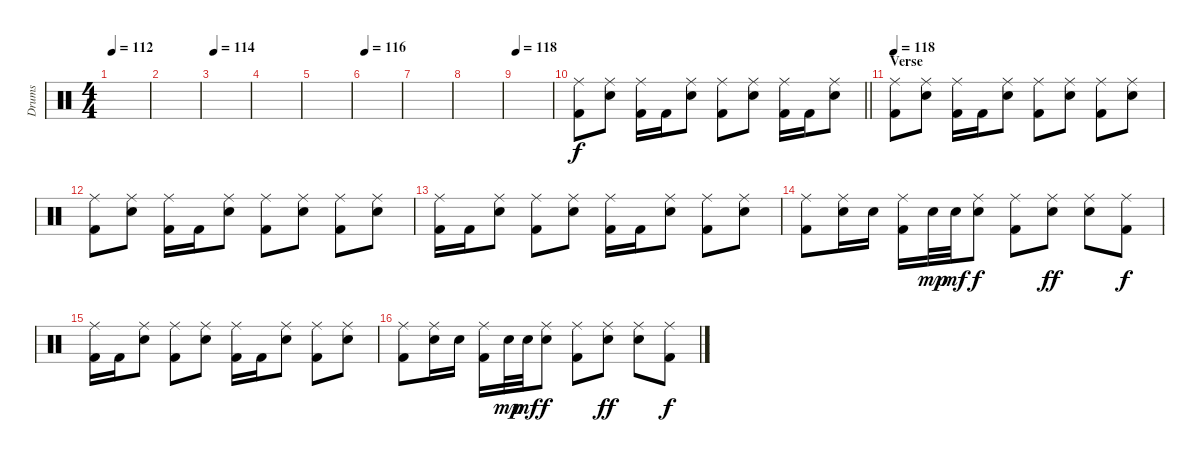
\track ("Drums" "Drums") {instrument percussion}
\staff {score}
\articulation defaults
\ts (4 4)
\tempo 112
\clef neutral
\ks c
|
|
\tempo 114
|
|
|
\tempo 116
|
|
|
\tempo 118
|
\barLineRight lightlight
("Ride (middle)" "Kick (hit) 2").8 ("Ride (middle)" "Electric Snare (hit)").8 ("Ride (middle)" "Kick (hit) 2").16 "Kick (hit) 2".16 ("Ride (middle)" "Electric Snare (hit)").8 ("Ride (middle)" "Kick (hit) 2").8 ("Ride (middle)" "Electric Snare (hit)").8 ("Ride (middle)" "Kick (hit) 2").16 "Kick (hit) 2".16 ("Ride (middle)" "Electric Snare (hit)").8 |
\section ("" "Verse")
\tempo 118
("Ride (middle)" "Kick (hit) 2").8 ("Ride (middle)" "Electric Snare (hit)").8 ("Ride (middle)" "Kick (hit) 2").16 "Kick (hit) 2".16 ("Ride (middle)" "Electric Snare (hit)").8 ("Ride (middle)" "Kick (hit) 2").8 ("Ride (middle)" "Electric Snare (hit)").8 ("Ride (middle)" "Kick (hit) 2").8 ("Ride (middle)" "Electric Snare (hit)").8 |
("Ride (middle)" "Kick (hit) 2").8 ("Ride (middle)" "Electric Snare (hit)").8 ("Ride (middle)" "Kick (hit) 2").16 "Kick (hit) 2".16 ("Ride (middle)" "Electric Snare (hit)").8 ("Ride (middle)" "Kick (hit) 2").8 ("Ride (middle)" "Electric Snare (hit)").8 ("Ride (middle)" "Kick (hit) 2").8 ("Ride (middle)" "Electric Snare (hit)").8 |
("Ride (middle)" "Kick (hit) 2").16 "Kick (hit) 2".16 ("Ride (middle)" "Electric Snare (hit)").8 ("Ride (middle)" "Kick (hit) 2").8 ("Ride (middle)" "Electric Snare (hit)").8 ("Ride (middle)" "Kick (hit) 2").16 "Kick (hit) 2".16 ("Ride (middle)" "Electric Snare (hit)").8 ("Ride (middle)" "Kick (hit) 2").8 ("Ride (middle)" "Electric Snare (hit)").8 |
("Ride (middle)" "Kick (hit) 2").8 ("Ride (middle)" "Electric Snare (hit)").16 "Electric Snare (hit)".16 ("Ride (middle)" "Kick (hit) 2").16 "Electric Snare (hit)".32{dy mp} "Electric Snare (hit)".32{dy mf} ("Ride (middle)" "Electric Snare (hit)").8{dy f} ("Ride (middle)" "Kick (hit) 2").8 ("Ride (middle)" "Electric Snare (hit)").8{dy ff} ("Ride (middle)" "Electric Snare (hit)").8 ("Ride (middle)" "Kick (hit) 2").8{dy f} |
("Ride (middle)" "Kick (hit) 2").16 "Kick (hit) 2".16 ("Ride (middle)" "Electric Snare (hit)").8 ("Ride (middle)" "Kick (hit) 2").8 ("Ride (middle)" "Electric Snare (hit)").8 ("Ride (middle)" "Kick (hit) 2").16 "Kick (hit) 2".16 ("Ride (middle)" "Electric Snare (hit)").8 ("Ride (middle)" "Kick (hit) 2").8 ("Ride (middle)" "Electric Snare (hit)").8 |
("Ride (middle)" "Kick (hit) 2").8 ("Ride (middle)" "Electric Snare (hit)").16 "Electric Snare (hit)".16 ("Ride (middle)" "Kick (hit) 2").16 "Electric Snare (hit)".32{dy mp} "Electric Snare (hit)".32{dy mf} ("Ride (middle)" "Electric Snare (hit)").8{dy f} ("Ride (middle)" "Kick (hit) 2").8 ("Ride (middle)" "Electric Snare (hit)").8{dy ff} ("Ride (middle)" "Electric Snare (hit)").8 ("Ride (middle)" "Kick (hit) 2").8{dy f}
